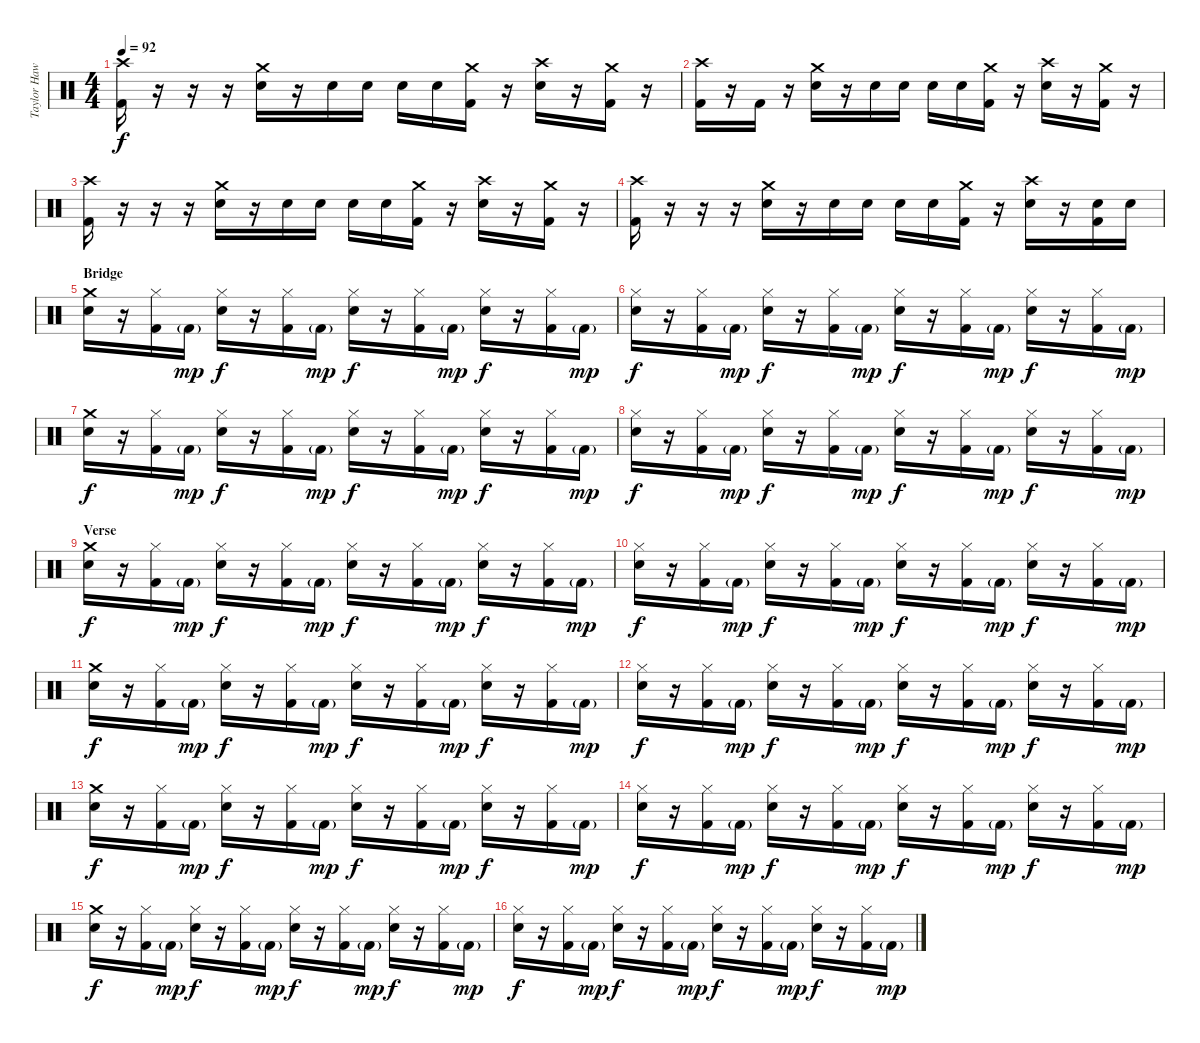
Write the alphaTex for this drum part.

\track ("Taylor Hawkins (Drums)" "Taylor Haw") {instrument percussion}
\staff {score}
\articulation defaults
\ts (4 4)
\tempo 92
\clef neutral
\ks c
("Crash high (hit)" "Kick (hit) 2").16{dy f} r.16 r.16 r.16 ("Crash medium (hit)" "Electric Snare (hit)").16 r.16 "Electric Snare (hit)".16 "Electric Snare (hit)".16 "Electric Snare (hit)".16 "Electric Snare (hit)".16 ("Crash medium (hit)" "Kick (hit) 2").16 r.16 ("Crash high (hit)" "Electric Snare (hit)").16 r.16 ("Crash medium (hit)" "Kick (hit) 2").16 r.16 |
("Crash high (hit)" "Kick (hit) 2").16 r.16 "Kick (hit) 2".16 r.16 ("Crash medium (hit)" "Electric Snare (hit)").16 r.16 "Electric Snare (hit)".16 "Electric Snare (hit)".16 "Electric Snare (hit)".16 "Electric Snare (hit)".16 ("Crash medium (hit)" "Kick (hit) 2").16 r.16 ("Crash high (hit)" "Electric Snare (hit)").16 r.16 ("Crash medium (hit)" "Kick (hit) 2").16 r.16 |
("Crash high (hit)" "Kick (hit) 2").16 r.16 r.16 r.16 ("Crash medium (hit)" "Electric Snare (hit)").16 r.16 "Electric Snare (hit)".16 "Electric Snare (hit)".16 "Electric Snare (hit)".16 "Electric Snare (hit)".16 ("Crash medium (hit)" "Kick (hit) 2").16 r.16 ("Crash high (hit)" "Electric Snare (hit)").16 r.16 ("Crash medium (hit)" "Kick (hit) 2").16 r.16 |
("Crash high (hit)" "Kick (hit) 2").16 r.16 r.16 r.16 ("Crash medium (hit)" "Electric Snare (hit)").16 r.16 "Electric Snare (hit)".16 "Electric Snare (hit)".16 "Electric Snare (hit)".16 "Electric Snare (hit)".16 ("Crash medium (hit)" "Kick (hit) 2").16 r.16 ("Crash high (hit)" "Electric Snare (hit)").16 r.16 ("Electric Snare (hit)" "Kick (hit) 2").16 "Electric Snare (hit)".16 |
\section ("" "Bridge")
("Crash medium (hit)" "Electric Snare (hit)").16 r.16 ("Hi-Hat (closed)" "Kick (hit) 2").16 "Kick (hit) 2"{g}.16{dy mp} ("Hi-Hat (closed)" "Electric Snare (hit)").16{dy f} r.16 ("Hi-Hat (closed)" "Kick (hit) 2").16 "Kick (hit) 2"{g}.16{dy mp} ("Hi-Hat (closed)" "Electric Snare (hit)").16{dy f} r.16 ("Hi-Hat (closed)" "Kick (hit) 2").16 "Kick (hit) 2"{g}.16{dy mp} ("Hi-Hat (closed)" "Electric Snare (hit)").16{dy f} r.16 ("Hi-Hat (closed)" "Kick (hit) 2").16 "Kick (hit) 2"{g}.16{dy mp} |
("Hi-Hat (closed)" "Electric Snare (hit)").16{dy f} r.16 ("Hi-Hat (closed)" "Kick (hit) 2").16 "Kick (hit) 2"{g}.16{dy mp} ("Hi-Hat (closed)" "Electric Snare (hit)").16{dy f} r.16 ("Hi-Hat (closed)" "Kick (hit) 2").16 "Kick (hit) 2"{g}.16{dy mp} ("Hi-Hat (closed)" "Electric Snare (hit)").16{dy f} r.16 ("Hi-Hat (closed)" "Kick (hit) 2").16 "Kick (hit) 2"{g}.16{dy mp} ("Hi-Hat (closed)" "Electric Snare (hit)").16{dy f} r.16 ("Hi-Hat (closed)" "Kick (hit) 2").16 "Kick (hit) 2"{g}.16{dy mp} |
("Crash medium (hit)" "Electric Snare (hit)").16{dy f} r.16 ("Hi-Hat (closed)" "Kick (hit) 2").16 "Kick (hit) 2"{g}.16{dy mp} ("Hi-Hat (closed)" "Electric Snare (hit)").16{dy f} r.16 ("Hi-Hat (closed)" "Kick (hit) 2").16 "Kick (hit) 2"{g}.16{dy mp} ("Hi-Hat (closed)" "Electric Snare (hit)").16{dy f} r.16 ("Hi-Hat (closed)" "Kick (hit) 2").16 "Kick (hit) 2"{g}.16{dy mp} ("Hi-Hat (closed)" "Electric Snare (hit)").16{dy f} r.16 ("Hi-Hat (closed)" "Kick (hit) 2").16 "Kick (hit) 2"{g}.16{dy mp} |
("Hi-Hat (closed)" "Electric Snare (hit)").16{dy f} r.16 ("Hi-Hat (closed)" "Kick (hit) 2").16 "Kick (hit) 2"{g}.16{dy mp} ("Hi-Hat (closed)" "Electric Snare (hit)").16{dy f} r.16 ("Hi-Hat (closed)" "Kick (hit) 2").16 "Kick (hit) 2"{g}.16{dy mp} ("Hi-Hat (closed)" "Electric Snare (hit)").16{dy f} r.16 ("Hi-Hat (closed)" "Kick (hit) 2").16 "Kick (hit) 2"{g}.16{dy mp} ("Hi-Hat (closed)" "Electric Snare (hit)").16{dy f} r.16 ("Hi-Hat (closed)" "Kick (hit) 2").16 "Kick (hit) 2"{g}.16{dy mp} |
\section ("" "Verse")
("Crash medium (hit)" "Electric Snare (hit)").16{dy f} r.16 ("Hi-Hat (closed)" "Kick (hit) 2").16 "Kick (hit) 2"{g}.16{dy mp} ("Hi-Hat (closed)" "Electric Snare (hit)").16{dy f} r.16 ("Hi-Hat (closed)" "Kick (hit) 2").16 "Kick (hit) 2"{g}.16{dy mp} ("Hi-Hat (closed)" "Electric Snare (hit)").16{dy f} r.16 ("Hi-Hat (closed)" "Kick (hit) 2").16 "Kick (hit) 2"{g}.16{dy mp} ("Hi-Hat (closed)" "Electric Snare (hit)").16{dy f} r.16 ("Hi-Hat (closed)" "Kick (hit) 2").16 "Kick (hit) 2"{g}.16{dy mp} |
("Hi-Hat (closed)" "Electric Snare (hit)").16{dy f} r.16 ("Hi-Hat (closed)" "Kick (hit) 2").16 "Kick (hit) 2"{g}.16{dy mp} ("Hi-Hat (closed)" "Electric Snare (hit)").16{dy f} r.16 ("Hi-Hat (closed)" "Kick (hit) 2").16 "Kick (hit) 2"{g}.16{dy mp} ("Hi-Hat (closed)" "Electric Snare (hit)").16{dy f} r.16 ("Hi-Hat (closed)" "Kick (hit) 2").16 "Kick (hit) 2"{g}.16{dy mp} ("Hi-Hat (closed)" "Electric Snare (hit)").16{dy f} r.16 ("Hi-Hat (closed)" "Kick (hit) 2").16 "Kick (hit) 2"{g}.16{dy mp} |
("Crash medium (hit)" "Electric Snare (hit)").16{dy f} r.16 ("Hi-Hat (closed)" "Kick (hit) 2").16 "Kick (hit) 2"{g}.16{dy mp} ("Hi-Hat (closed)" "Electric Snare (hit)").16{dy f} r.16 ("Hi-Hat (closed)" "Kick (hit) 2").16 "Kick (hit) 2"{g}.16{dy mp} ("Hi-Hat (closed)" "Electric Snare (hit)").16{dy f} r.16 ("Hi-Hat (closed)" "Kick (hit) 2").16 "Kick (hit) 2"{g}.16{dy mp} ("Hi-Hat (closed)" "Electric Snare (hit)").16{dy f} r.16 ("Hi-Hat (closed)" "Kick (hit) 2").16 "Kick (hit) 2"{g}.16{dy mp} |
("Hi-Hat (closed)" "Electric Snare (hit)").16{dy f} r.16 ("Hi-Hat (closed)" "Kick (hit) 2").16 "Kick (hit) 2"{g}.16{dy mp} ("Hi-Hat (closed)" "Electric Snare (hit)").16{dy f} r.16 ("Hi-Hat (closed)" "Kick (hit) 2").16 "Kick (hit) 2"{g}.16{dy mp} ("Hi-Hat (closed)" "Electric Snare (hit)").16{dy f} r.16 ("Hi-Hat (closed)" "Kick (hit) 2").16 "Kick (hit) 2"{g}.16{dy mp} ("Hi-Hat (closed)" "Electric Snare (hit)").16{dy f} r.16 ("Hi-Hat (closed)" "Kick (hit) 2").16 "Kick (hit) 2"{g}.16{dy mp} |
("Crash medium (hit)" "Electric Snare (hit)").16{dy f} r.16 ("Hi-Hat (closed)" "Kick (hit) 2").16 "Kick (hit) 2"{g}.16{dy mp} ("Hi-Hat (closed)" "Electric Snare (hit)").16{dy f} r.16 ("Hi-Hat (closed)" "Kick (hit) 2").16 "Kick (hit) 2"{g}.16{dy mp} ("Hi-Hat (closed)" "Electric Snare (hit)").16{dy f} r.16 ("Hi-Hat (closed)" "Kick (hit) 2").16 "Kick (hit) 2"{g}.16{dy mp} ("Hi-Hat (closed)" "Electric Snare (hit)").16{dy f} r.16 ("Hi-Hat (closed)" "Kick (hit) 2").16 "Kick (hit) 2"{g}.16{dy mp} |
("Hi-Hat (closed)" "Electric Snare (hit)").16{dy f} r.16 ("Hi-Hat (closed)" "Kick (hit) 2").16 "Kick (hit) 2"{g}.16{dy mp} ("Hi-Hat (closed)" "Electric Snare (hit)").16{dy f} r.16 ("Hi-Hat (closed)" "Kick (hit) 2").16 "Kick (hit) 2"{g}.16{dy mp} ("Hi-Hat (closed)" "Electric Snare (hit)").16{dy f} r.16 ("Hi-Hat (closed)" "Kick (hit) 2").16 "Kick (hit) 2"{g}.16{dy mp} ("Hi-Hat (closed)" "Electric Snare (hit)").16{dy f} r.16 ("Hi-Hat (closed)" "Kick (hit) 2").16 "Kick (hit) 2"{g}.16{dy mp} |
("Crash medium (hit)" "Electric Snare (hit)").16{dy f} r.16 ("Hi-Hat (closed)" "Kick (hit) 2").16 "Kick (hit) 2"{g}.16{dy mp} ("Hi-Hat (closed)" "Electric Snare (hit)").16{dy f} r.16 ("Hi-Hat (closed)" "Kick (hit) 2").16 "Kick (hit) 2"{g}.16{dy mp} ("Hi-Hat (closed)" "Electric Snare (hit)").16{dy f} r.16 ("Hi-Hat (closed)" "Kick (hit) 2").16 "Kick (hit) 2"{g}.16{dy mp} ("Hi-Hat (closed)" "Electric Snare (hit)").16{dy f} r.16 ("Hi-Hat (closed)" "Kick (hit) 2").16 "Kick (hit) 2"{g}.16{dy mp} |
("Hi-Hat (closed)" "Electric Snare (hit)").16{dy f} r.16 ("Hi-Hat (closed)" "Kick (hit) 2").16 "Kick (hit) 2"{g}.16{dy mp} ("Hi-Hat (closed)" "Electric Snare (hit)").16{dy f} r.16 ("Hi-Hat (closed)" "Kick (hit) 2").16 "Kick (hit) 2"{g}.16{dy mp} ("Hi-Hat (closed)" "Electric Snare (hit)").16{dy f} r.16 ("Hi-Hat (closed)" "Kick (hit) 2").16 "Kick (hit) 2"{g}.16{dy mp} ("Hi-Hat (closed)" "Electric Snare (hit)").16{dy f} r.16 ("Hi-Hat (closed)" "Kick (hit) 2").16 "Kick (hit) 2"{g}.16{dy mp}
